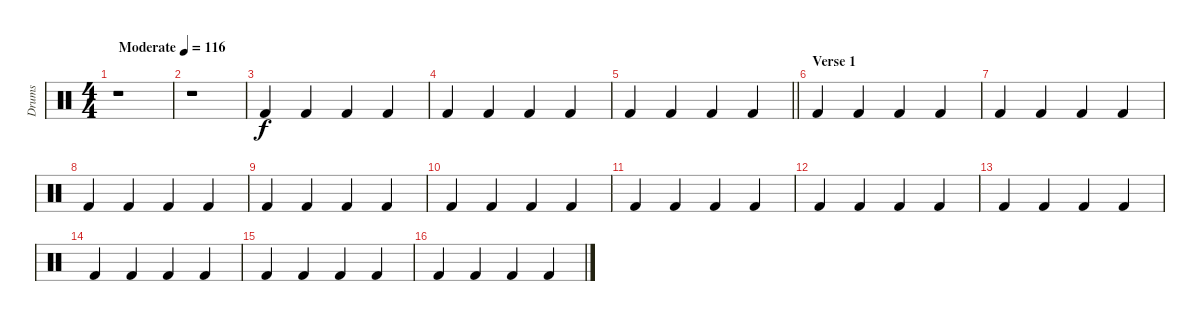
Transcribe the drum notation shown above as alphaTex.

\track ("Drums" "Drums") {instrument percussion}
\staff {score}
\articulation defaults
\ts (4 4)
\tempo (116 "Moderate")
\clef neutral
\ks c
r.1{dy f} |
r.1 |
"Kick (hit) 2".4 "Kick (hit) 2".4 "Kick (hit) 2".4 "Kick (hit) 2".4 |
"Kick (hit) 2".4 "Kick (hit) 2".4 "Kick (hit) 2".4 "Kick (hit) 2".4 |
\barLineRight lightlight "Kick (hit) 2".4 "Kick (hit) 2".4 "Kick (hit) 2".4 "Kick (hit) 2".4
|
\section ("" "Verse 1")
"Kick (hit) 2".4 "Kick (hit) 2".4 "Kick (hit) 2".4 "Kick (hit) 2".4 |
"Kick (hit) 2".4 "Kick (hit) 2".4 "Kick (hit) 2".4 "Kick (hit) 2".4 |
"Kick (hit) 2".4 "Kick (hit) 2".4 "Kick (hit) 2".4 "Kick (hit) 2".4 |
"Kick (hit) 2".4 "Kick (hit) 2".4 "Kick (hit) 2".4 "Kick (hit) 2".4 |
"Kick (hit) 2".4 "Kick (hit) 2".4 "Kick (hit) 2".4 "Kick (hit) 2".4 |
"Kick (hit) 2".4 "Kick (hit) 2".4 "Kick (hit) 2".4 "Kick (hit) 2".4 |
"Kick (hit) 2".4 "Kick (hit) 2".4 "Kick (hit) 2".4 "Kick (hit) 2".4 |
"Kick (hit) 2".4 "Kick (hit) 2".4 "Kick (hit) 2".4 "Kick (hit) 2".4 |
"Kick (hit) 2".4 "Kick (hit) 2".4 "Kick (hit) 2".4 "Kick (hit) 2".4 |
"Kick (hit) 2".4 "Kick (hit) 2".4 "Kick (hit) 2".4 "Kick (hit) 2".4 |
"Kick (hit) 2".4 "Kick (hit) 2".4 "Kick (hit) 2".4 "Kick (hit) 2".4
